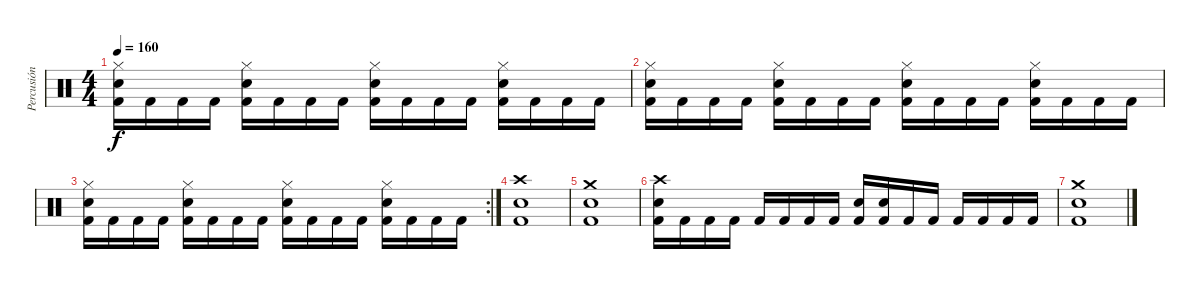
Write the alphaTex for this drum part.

\track ("Percusión" "Percusión") {instrument percussion}
\staff {score}
\articulation defaults
\ts (4 4)
\tempo 160
\clef neutral
\ks c
("Hi-Hat (closed)" "Electric Snare (hit)" "Kick (hit) 2").16{dy f} "Kick (hit) 2".16 "Kick (hit) 2".16 "Kick (hit) 2".16 ("Hi-Hat (closed)" "Electric Snare (hit)" "Kick (hit) 2").16 "Kick (hit) 2".16 "Kick (hit) 2".16 "Kick (hit) 2".16 ("Hi-Hat (closed)" "Electric Snare (hit)" "Kick (hit) 2").16 "Kick (hit) 2".16 "Kick (hit) 2".16 "Kick (hit) 2".16 ("Hi-Hat (closed)" "Electric Snare (hit)" "Kick (hit) 2").16 "Kick (hit) 2".16 "Kick (hit) 2".16 "Kick (hit) 2".16 |
("Hi-Hat (closed)" "Electric Snare (hit)" "Kick (hit) 2").16 "Kick (hit) 2".16 "Kick (hit) 2".16 "Kick (hit) 2".16 ("Hi-Hat (closed)" "Electric Snare (hit)" "Kick (hit) 2").16 "Kick (hit) 2".16 "Kick (hit) 2".16 "Kick (hit) 2".16 ("Hi-Hat (closed)" "Electric Snare (hit)" "Kick (hit) 2").16 "Kick (hit) 2".16 "Kick (hit) 2".16 "Kick (hit) 2".16 ("Hi-Hat (closed)" "Electric Snare (hit)" "Kick (hit) 2").16 "Kick (hit) 2".16 "Kick (hit) 2".16 "Kick (hit) 2".16 |
\rc 2
("Hi-Hat (closed)" "Electric Snare (hit)" "Kick (hit) 2").16 "Kick (hit) 2".16 "Kick (hit) 2".16 "Kick (hit) 2".16 ("Hi-Hat (closed)" "Electric Snare (hit)" "Kick (hit) 2").16 "Kick (hit) 2".16 "Kick (hit) 2".16 "Kick (hit) 2".16 ("Hi-Hat (closed)" "Electric Snare (hit)" "Kick (hit) 2").16 "Kick (hit) 2".16 "Kick (hit) 2".16 "Kick (hit) 2".16 ("Hi-Hat (closed)" "Electric Snare (hit)" "Kick (hit) 2").16 "Kick (hit) 2".16 "Kick (hit) 2".16 "Kick (hit) 2".16 |
("Crash high (hit)" "Electric Snare (hit)" "Kick (hit) 2").1 |
("Crash medium (hit)" "Electric Snare (hit)" "Kick (hit) 2").1 |
("Crash high (hit)" "Electric Snare (hit)" "Kick (hit) 2").16 "Kick (hit) 2".16 "Kick (hit) 2".16 "Kick (hit) 2".16 "Kick (hit) 2".16 "Kick (hit) 2".16 "Kick (hit) 2".16 "Kick (hit) 2".16 ("Electric Snare (hit)" "Kick (hit) 2").16 ("Electric Snare (hit)" "Kick (hit) 2").16 "Kick (hit) 2".16 "Kick (hit) 2".16 "Kick (hit) 2".16 "Kick (hit) 2".16 "Kick (hit) 2".16 "Kick (hit) 2".16 |
("Crash medium (hit)" "Electric Snare (hit)" "Kick (hit) 2").1
